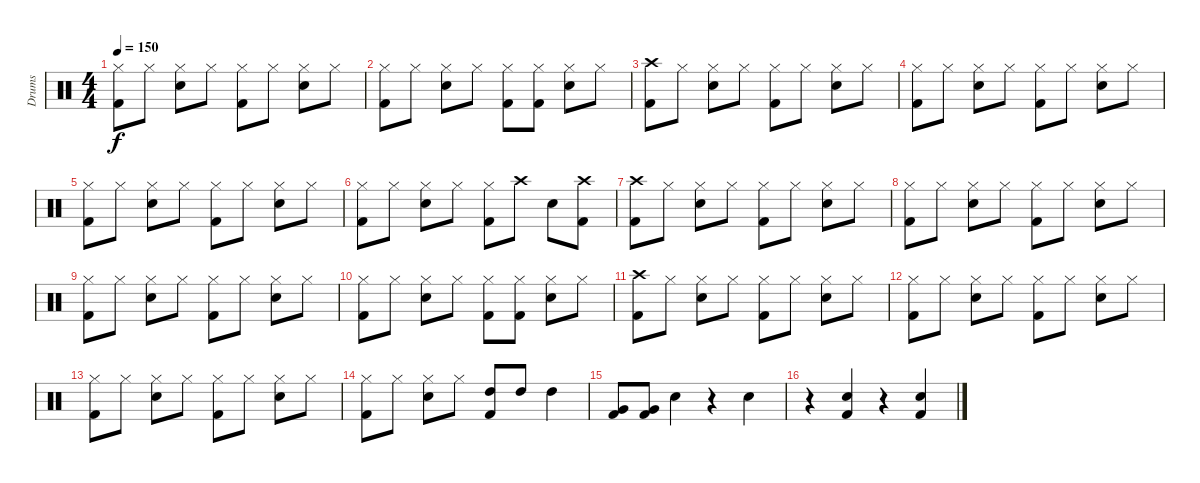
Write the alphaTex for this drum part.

\track ("Drums" "Drums") {instrument percussion}
\staff {score}
\articulation defaults
\ts (4 4)
\tempo 150
\clef neutral
\ks c
("Hi-Hat (closed)" "Kick (hit) 2").8{dy f} "Hi-Hat (closed)".8 ("Hi-Hat (closed)" "Electric Snare (hit)").8 "Hi-Hat (closed)".8 ("Hi-Hat (closed)" "Kick (hit) 2").8 "Hi-Hat (closed)".8 ("Hi-Hat (closed)" "Electric Snare (hit)").8 "Hi-Hat (closed)".8 |
("Hi-Hat (closed)" "Kick (hit) 2").8 "Hi-Hat (closed)".8 ("Hi-Hat (closed)" "Electric Snare (hit)").8 "Hi-Hat (closed)".8 ("Hi-Hat (closed)" "Kick (hit) 2").8 ("Hi-Hat (closed)" "Kick (hit) 2").8 ("Hi-Hat (closed)" "Electric Snare (hit)").8 "Hi-Hat (closed)".8 |
("Crash high (hit)" "Kick (hit) 2").8 "Hi-Hat (closed)".8 ("Hi-Hat (closed)" "Electric Snare (hit)").8 "Hi-Hat (closed)".8 ("Hi-Hat (closed)" "Kick (hit) 2").8 "Hi-Hat (closed)".8 ("Hi-Hat (closed)" "Electric Snare (hit)").8 "Hi-Hat (closed)".8 |
("Hi-Hat (closed)" "Kick (hit) 2").8 "Hi-Hat (closed)".8 ("Hi-Hat (closed)" "Electric Snare (hit)").8 "Hi-Hat (closed)".8 ("Hi-Hat (closed)" "Kick (hit) 2").8 "Hi-Hat (closed)".8 ("Hi-Hat (closed)" "Electric Snare (hit)").8 "Hi-Hat (closed)".8 |
("Hi-Hat (closed)" "Kick (hit) 2").8 "Hi-Hat (closed)".8 ("Hi-Hat (closed)" "Electric Snare (hit)").8 "Hi-Hat (closed)".8 ("Hi-Hat (closed)" "Kick (hit) 2").8 "Hi-Hat (closed)".8 ("Hi-Hat (closed)" "Electric Snare (hit)").8 "Hi-Hat (closed)".8 |
("Hi-Hat (closed)" "Kick (hit) 2").8 "Hi-Hat (closed)".8 ("Hi-Hat (closed)" "Electric Snare (hit)").8 "Hi-Hat (closed)".8 ("Hi-Hat (closed)" "Kick (hit) 2").8 "Crash high (hit)".8 "Electric Snare (hit)".8 ("Crash high (hit)" "Kick (hit) 2").8 |
("Crash high (hit)" "Kick (hit) 2").8 "Hi-Hat (closed)".8 ("Hi-Hat (closed)" "Electric Snare (hit)").8 "Hi-Hat (closed)".8 ("Hi-Hat (closed)" "Kick (hit) 2").8 "Hi-Hat (closed)".8 ("Hi-Hat (closed)" "Electric Snare (hit)").8 "Hi-Hat (closed)".8 |
("Hi-Hat (closed)" "Kick (hit) 2").8 "Hi-Hat (closed)".8 ("Hi-Hat (closed)" "Electric Snare (hit)").8 "Hi-Hat (closed)".8 ("Hi-Hat (closed)" "Kick (hit) 2").8 "Hi-Hat (closed)".8 ("Hi-Hat (closed)" "Electric Snare (hit)").8 "Hi-Hat (closed)".8 |
("Hi-Hat (closed)" "Kick (hit) 2").8 "Hi-Hat (closed)".8 ("Hi-Hat (closed)" "Electric Snare (hit)").8 "Hi-Hat (closed)".8 ("Hi-Hat (closed)" "Kick (hit) 2").8 "Hi-Hat (closed)".8 ("Hi-Hat (closed)" "Electric Snare (hit)").8 "Hi-Hat (closed)".8 |
("Hi-Hat (closed)" "Kick (hit) 2").8 "Hi-Hat (closed)".8 ("Hi-Hat (closed)" "Electric Snare (hit)").8 "Hi-Hat (closed)".8 ("Hi-Hat (closed)" "Kick (hit) 2").8 ("Hi-Hat (closed)" "Kick (hit) 2").8 ("Hi-Hat (closed)" "Electric Snare (hit)").8 "Hi-Hat (closed)".8 |
("Crash high (hit)" "Kick (hit) 2").8 "Hi-Hat (closed)".8 ("Hi-Hat (closed)" "Electric Snare (hit)").8 "Hi-Hat (closed)".8 ("Hi-Hat (closed)" "Kick (hit) 2").8 "Hi-Hat (closed)".8 ("Hi-Hat (closed)" "Electric Snare (hit)").8 "Hi-Hat (closed)".8 |
("Hi-Hat (closed)" "Kick (hit) 2").8 "Hi-Hat (closed)".8 ("Hi-Hat (closed)" "Electric Snare (hit)").8 "Hi-Hat (closed)".8 ("Hi-Hat (closed)" "Kick (hit) 2").8 "Hi-Hat (closed)".8 ("Hi-Hat (closed)" "Electric Snare (hit)").8 "Hi-Hat (closed)".8 |
("Hi-Hat (closed)" "Kick (hit) 2").8 "Hi-Hat (closed)".8 ("Hi-Hat (closed)" "Electric Snare (hit)").8 "Hi-Hat (closed)".8 ("Hi-Hat (closed)" "Kick (hit) 2").8 "Hi-Hat (closed)".8 ("Hi-Hat (closed)" "Electric Snare (hit)").8 "Hi-Hat (closed)".8 |
("Hi-Hat (closed)" "Kick (hit) 2").8 "Hi-Hat (closed)".8 ("Hi-Hat (closed)" "Electric Snare (hit)").8 "Hi-Hat (closed)".8 ("High Tom (hit)" "Kick (hit) 2").8 "High Tom (hit)".8 "High Tom (hit)".4 |
("Very Low Tom (hit)" "Kick (hit) 2").8 ("Very Low Tom (hit)" "Kick (hit) 2").8 "Electric Snare (hit)".4 r.4 "Electric Snare (hit)".4 |
r.4 ("Electric Snare (hit)" "Kick (hit) 2").4 r.4 ("Electric Snare (hit)" "Kick (hit) 2").4
